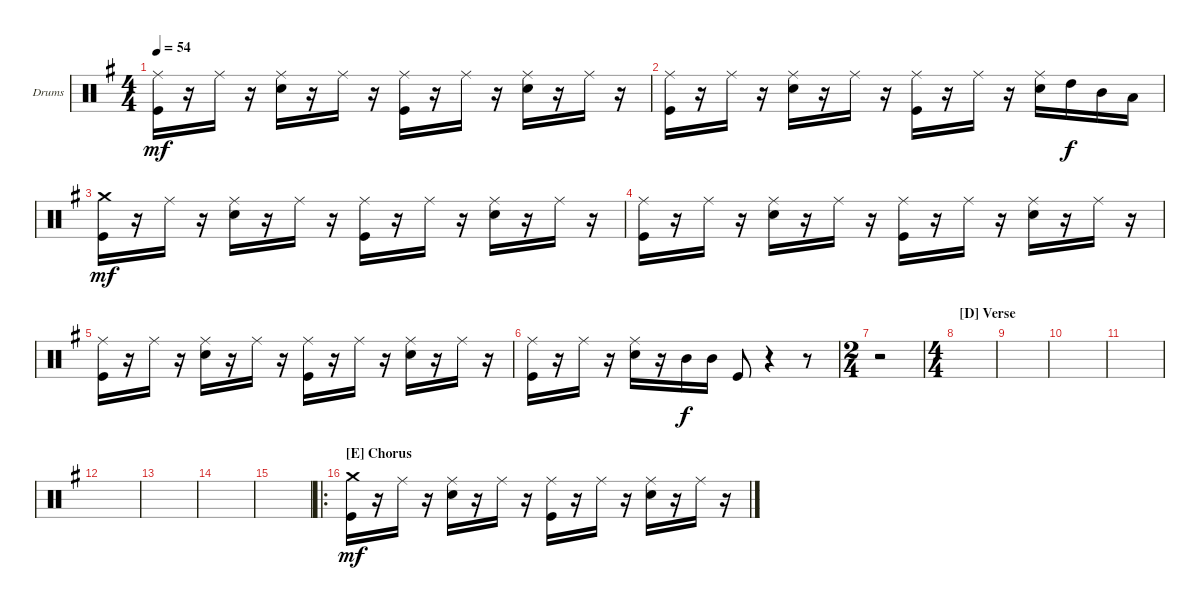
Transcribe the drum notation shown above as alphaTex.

\bracketExtendMode groupsimilarinstruments
\firstSystemTrackNameOrientation horizontal
\otherSystemsTrackNameOrientation horizontal
\track ("Drumkit" "Drums") {instrument percussion}
\staff {score}
\articulation defaults
\ts (4 4)
\tempo 54
\clef neutral
\scale
1.04288
\ks g
("Ride (middle)" "Kick (hit)").16{dy mf} r.16 "Ride (middle)".16 r.16 ("Ride (middle)" "Snare (hit) 2").16 r.16 "Ride (middle)".16 r.16 ("Ride (middle)" "Kick (hit)").16 r.16 "Ride (middle)".16 r.16 ("Ride (middle)" "Snare (hit) 2").16 r.16 "Ride (middle)".16 r.16 |
\scale
0.957125 ("Ride (middle)" "Kick (hit)").16 r.16 "Ride (middle)".16 r.16 ("Ride (middle)" "Snare (hit) 2").16 r.16 "Ride (middle)".16 r.16 ("Ride (middle)" "Kick (hit)").16 r.16 "Ride (middle)".16 r.16 ("Ride (middle)" "Snare (hit) 2").16 "High Tom (hit)".16{dy f} "Mid Tom (hit)".16 "Low Tom (hit)".16 |
\scale
1.04288 ("Crash medium (hit)" "Kick (hit)").16{dy mf} r.16 "Ride (middle)".16 r.16 ("Ride (middle)" "Snare (hit) 2").16 r.16 "Ride (middle)".16 r.16 ("Ride (middle)" "Kick (hit)").16 r.16 "Ride (middle)".16 r.16 ("Ride (middle)" "Snare (hit) 2").16 r.16 "Ride (middle)".16 r.16 |
\scale
0.957125 ("Ride (middle)" "Kick (hit)").16 r.16 "Ride (middle)".16 r.16 ("Ride (middle)" "Snare (hit) 2").16 r.16 "Ride (middle)".16 r.16 ("Ride (middle)" "Kick (hit)").16 r.16 "Ride (middle)".16 r.16 ("Ride (middle)" "Snare (hit) 2").16 r.16 "Ride (middle)".16 r.16 |
\scale
1.04288 ("Ride (middle)" "Kick (hit)").16 r.16 "Ride (middle)".16 r.16 ("Ride (middle)" "Snare (hit) 2").16 r.16 "Ride (middle)".16 r.16 ("Ride (middle)" "Kick (hit)").16 r.16 "Ride (middle)".16 r.16 ("Ride (middle)" "Snare (hit) 2").16 r.16 "Ride (middle)".16 r.16 |
\scale
0.957125 ("Ride (middle)" "Kick (hit)").16 r.16 "Ride (middle)".16 r.16 ("Ride (middle)" "Snare (hit) 2").16 r.16 "Mid Tom (hit)".16{dy f} "Mid Tom (hit)".16 "Kick (hit)".8 r.4 r.8 |
\ts (2 4)
\scale
1.07314 r.2 |
\ts (4 4)
\section ("D" "Verse")
\scale
0.92686 |
\scale
1.04288 |
\scale
0.957125 |
\scale
1.04288 |
\scale
0.957125 |
\scale
1.04288 |
\scale
0.957125 |
\scale
1.04288 |
\ro
\section ("E" "Chorus")
\scale
0.957125 ("Crash medium (hit)" "Kick (hit)").16{dy mf} r.16 "Ride (middle)".16 r.16 ("Ride (middle)" "Snare (hit) 2").16 r.16 "Ride (middle)".16 r.16 ("Ride (middle)" "Kick (hit)").16 r.16 "Ride (middle)".16 r.16 ("Ride (middle)" "Snare (hit) 2").16 r.16 "Ride (middle)".16 r.16
